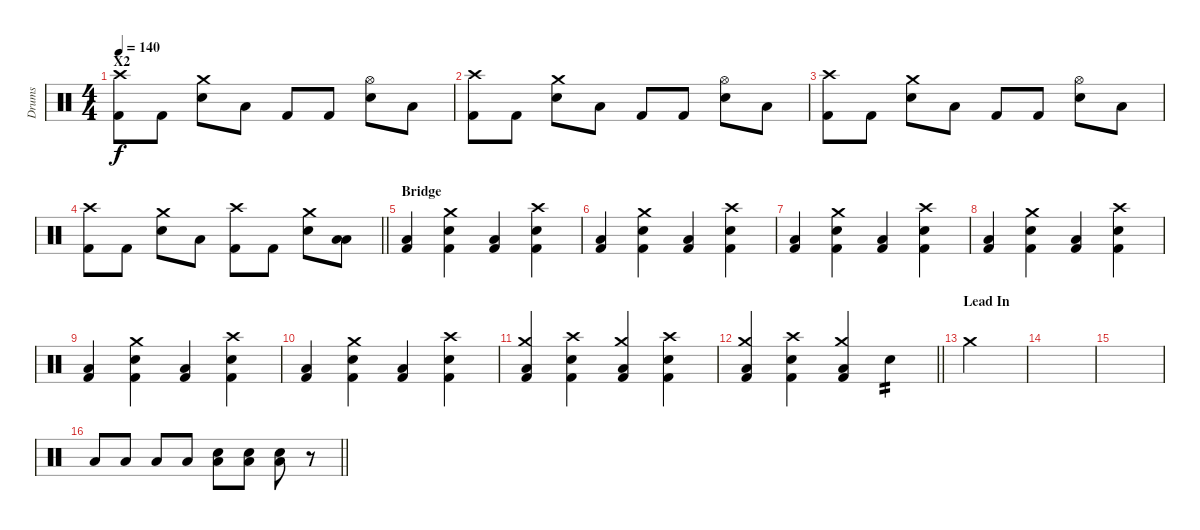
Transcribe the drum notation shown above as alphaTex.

\track ("Drums" "Drums") {instrument percussion}
\staff
\articulation defaults
\ts (4 4)
\section ("" "X2")
\tempo 140
\clef neutral
\ks c
("Crash high (hit)" "Kick (hit) 2").8{dy f} "Kick (hit) 2".8 ("Snare (hit) 2" "Crash medium (hit)").8 "Low Floor Tom (hit)".8 "Kick (hit) 2".8 "Kick (hit) 2".8 ("Snare (hit) 2" "Hi-Hat (open)").8 "Low Floor Tom (hit)".8 |
("Crash high (hit)" "Kick (hit) 2").8 "Kick (hit) 2".8 ("Snare (hit) 2" "Crash medium (hit)").8 "Low Floor Tom (hit)".8 "Kick (hit) 2".8 "Kick (hit) 2".8 ("Snare (hit) 2" "Hi-Hat (open)").8 "Low Floor Tom (hit)".8 |
("Crash high (hit)" "Kick (hit) 2").8 "Kick (hit) 2".8 ("Snare (hit) 2" "Crash medium (hit)").8 "Low Floor Tom (hit)".8 "Kick (hit) 2".8 "Kick (hit) 2".8 ("Snare (hit) 2" "Hi-Hat (open)").8 "Low Floor Tom (hit)".8 |
\barLineRight lightlight
("Crash high (hit)" "Kick (hit) 2").8 "Kick (hit) 2".8 ("Snare (hit) 2" "Crash medium (hit)").8 "Low Floor Tom (hit)".8 ("Crash high (hit)" "Kick (hit) 2").8 "Kick (hit) 2".8 ("Snare (hit) 2" "Crash medium (hit)").8 ("Low Tom (hit)" "Low Floor Tom (hit)").8 |
\section ("" "Bridge")
("Low Floor Tom (hit)" "Kick (hit) 2").4 ("Crash medium (hit)" "Snare (hit) 2" "Kick (hit) 2").4 ("Low Tom (hit)" "Kick (hit) 2").4 ("Crash high (hit)" "Snare (hit) 2" "Kick (hit) 2").4 |
("Low Floor Tom (hit)" "Kick (hit) 2").4 ("Crash medium (hit)" "Snare (hit) 2" "Kick (hit) 2").4 ("Low Tom (hit)" "Kick (hit) 2").4 ("Crash high (hit)" "Snare (hit) 2" "Kick (hit) 2").4 |
("Low Floor Tom (hit)" "Kick (hit) 2").4 ("Crash medium (hit)" "Snare (hit) 2" "Kick (hit) 2").4 ("Low Tom (hit)" "Kick (hit) 2").4 ("Crash high (hit)" "Snare (hit) 2" "Kick (hit) 2").4 |
("Low Floor Tom (hit)" "Kick (hit) 2").4 ("Crash medium (hit)" "Snare (hit) 2" "Kick (hit) 2").4 ("Low Tom (hit)" "Kick (hit) 2").4 ("Crash high (hit)" "Snare (hit) 2" "Kick (hit) 2").4 |
("Low Floor Tom (hit)" "Kick (hit) 2").4 ("Crash medium (hit)" "Snare (hit) 2" "Kick (hit) 2").4 ("Low Tom (hit)" "Kick (hit) 2").4 ("Crash high (hit)" "Snare (hit) 2" "Kick (hit) 2").4 |
("Low Floor Tom (hit)" "Kick (hit) 2").4 ("Crash medium (hit)" "Snare (hit) 2" "Kick (hit) 2").4 ("Low Tom (hit)" "Kick (hit) 2").4 ("Crash high (hit)" "Snare (hit) 2" "Kick (hit) 2").4 |
("Crash medium (hit)" "Low Floor Tom (hit)" "Kick (hit) 2").4 ("Crash high (hit)" "Snare (hit) 2" "Kick (hit) 2").4 ("Crash medium (hit)" "Low Tom (hit)" "Kick (hit) 2").4 ("Crash high (hit)" "Snare (hit) 2" "Kick (hit) 2").4 |
\barLineRight lightlight
("Crash medium (hit)" "Low Floor Tom (hit)" "Kick (hit) 2").4 ("Crash high (hit)" "Snare (hit) 2" "Kick (hit) 2").4 ("Crash medium (hit)" "Low Tom (hit)" "Kick (hit) 2").4 "Snare (hit) 2".4{tp 2} |
\section ("" "Lead In")
"Crash medium (hit)".2 |
|
|
\barLineRight lightlight "Low Tom (hit)".8 "Low Tom (hit)".8 "Low Tom (hit)".8 "Low Tom (hit)".8
("Snare (hit) 2" "Low Tom (hit)").8 ("Snare (hit) 2" "Low Tom (hit)").8 ("Snare (hit) 2" "Low Tom (hit)").8 r.8
